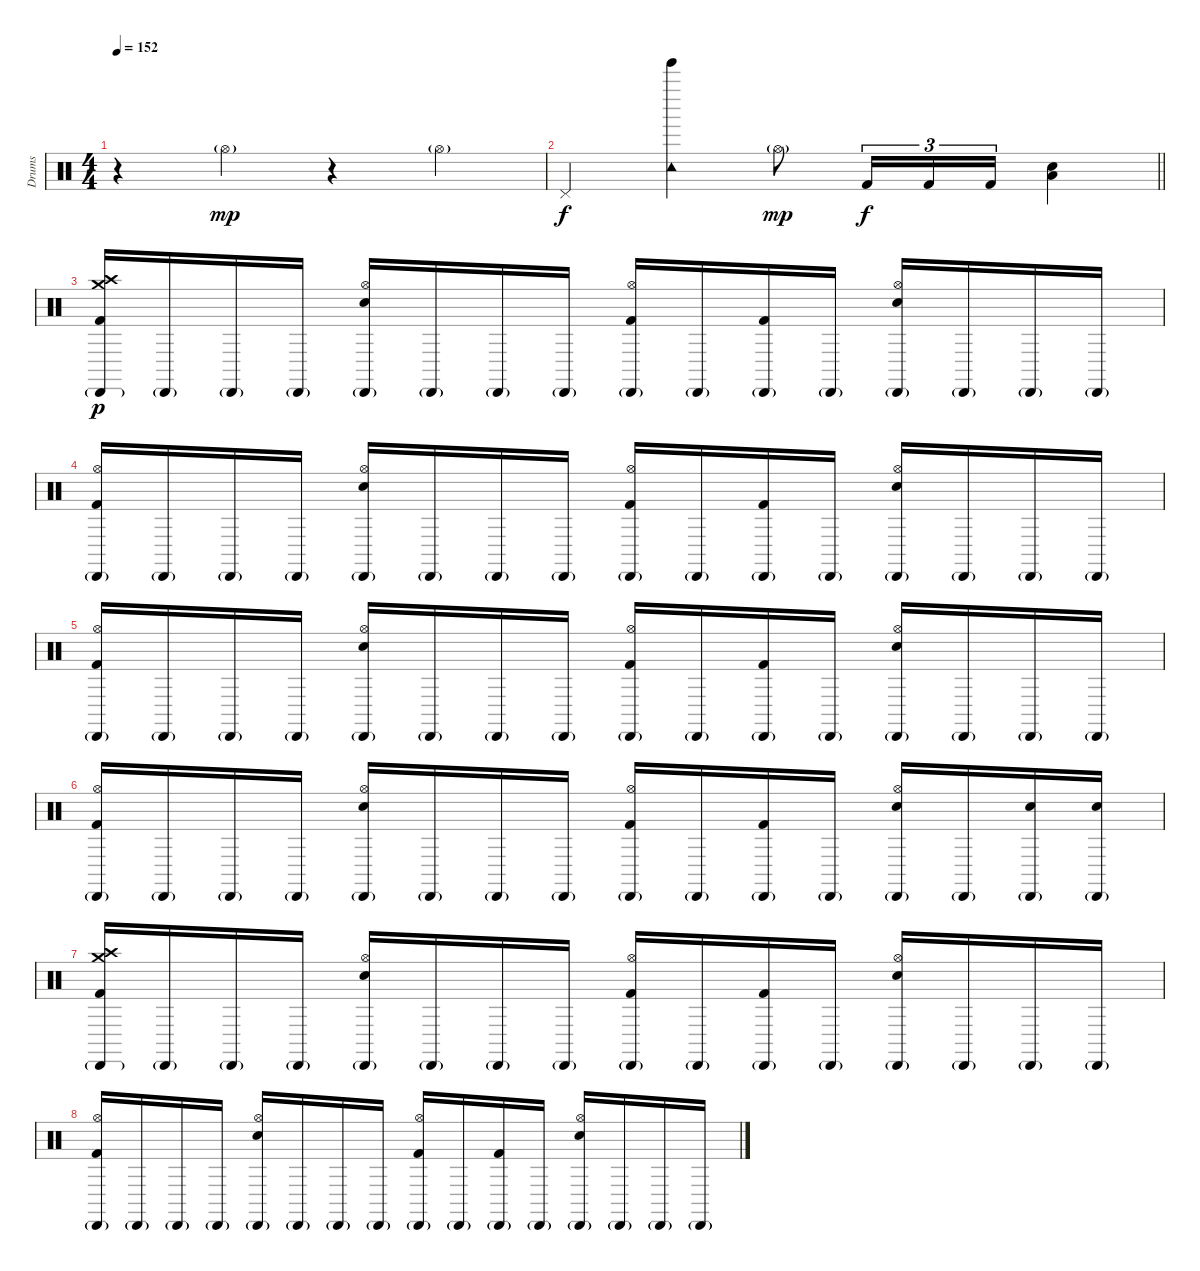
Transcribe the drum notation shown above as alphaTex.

\track ("Drums" "Drums") {instrument percussion}
\staff {score}
\articulation defaults
\ts (4 4)
\tempo 152
\clef neutral
\ks c
r.4{dy mp} "Hi-Hat (open)"{g}.4 r.4 "Hi-Hat (open)"{g}.4 |
\barLineRight lightlight "Pedal Hi-Hat (hit)".4{dy f}
("Tambourine (hit)" "Tinkle Bell (hit)").4 "Hi-Hat (open)"{g}.8{dy mp} "Kick (hit) 2".16{tu (3 2) dy f} "Kick (hit) 2".16{tu (3 2)} "Kick (hit) 2".16{tu (3 2)} ("Low Tom (hit)" "Electric Snare (hit)").4 |
("Crash high (hit)" "Crash medium (hit)" "Cabasa (hit)"{g} "Kick (hit) 2").16{dy p} "Cabasa (hit)"{g}.16 "Cabasa (hit)"{g}.16 "Cabasa (hit)"{g}.16 ("Hi-Hat (open)" "Cabasa (hit)"{g} "Electric Snare (hit)").16 "Cabasa (hit)"{g}.16 "Cabasa (hit)"{g}.16 "Cabasa (hit)"{g}.16 ("Hi-Hat (open)" "Cabasa (hit)"{g} "Kick (hit) 2").16 "Cabasa (hit)"{g}.16 ("Cabasa (hit)"{g} "Kick (hit) 2").16 "Cabasa (hit)"{g}.16 ("Hi-Hat (open)" "Cabasa (hit)"{g} "Electric Snare (hit)").16 "Cabasa (hit)"{g}.16 "Cabasa (hit)"{g}.16 "Cabasa (hit)"{g}.16 |
("Hi-Hat (open)" "Cabasa (hit)"{g} "Kick (hit) 2").16 "Cabasa (hit)"{g}.16 "Cabasa (hit)"{g}.16 "Cabasa (hit)"{g}.16 ("Hi-Hat (open)" "Cabasa (hit)"{g} "Electric Snare (hit)").16 "Cabasa (hit)"{g}.16 "Cabasa (hit)"{g}.16 "Cabasa (hit)"{g}.16 ("Hi-Hat (open)" "Cabasa (hit)"{g} "Kick (hit) 2").16 "Cabasa (hit)"{g}.16 ("Cabasa (hit)"{g} "Kick (hit) 2").16 "Cabasa (hit)"{g}.16 ("Hi-Hat (open)" "Cabasa (hit)"{g} "Electric Snare (hit)").16 "Cabasa (hit)"{g}.16 "Cabasa (hit)"{g}.16 "Cabasa (hit)"{g}.16 |
("Hi-Hat (open)" "Cabasa (hit)"{g} "Kick (hit) 2").16 "Cabasa (hit)"{g}.16 "Cabasa (hit)"{g}.16 "Cabasa (hit)"{g}.16 ("Hi-Hat (open)" "Cabasa (hit)"{g} "Electric Snare (hit)").16 "Cabasa (hit)"{g}.16 "Cabasa (hit)"{g}.16 "Cabasa (hit)"{g}.16 ("Hi-Hat (open)" "Cabasa (hit)"{g} "Kick (hit) 2").16 "Cabasa (hit)"{g}.16 ("Cabasa (hit)"{g} "Kick (hit) 2").16 "Cabasa (hit)"{g}.16 ("Hi-Hat (open)" "Cabasa (hit)"{g} "Electric Snare (hit)").16 "Cabasa (hit)"{g}.16 "Cabasa (hit)"{g}.16 "Cabasa (hit)"{g}.16 |
("Hi-Hat (open)" "Cabasa (hit)"{g} "Kick (hit) 2").16 "Cabasa (hit)"{g}.16 "Cabasa (hit)"{g}.16 "Cabasa (hit)"{g}.16 ("Hi-Hat (open)" "Cabasa (hit)"{g} "Electric Snare (hit)").16 "Cabasa (hit)"{g}.16 "Cabasa (hit)"{g}.16 "Cabasa (hit)"{g}.16 ("Hi-Hat (open)" "Cabasa (hit)"{g} "Kick (hit) 2").16 "Cabasa (hit)"{g}.16 ("Cabasa (hit)"{g} "Kick (hit) 2").16 "Cabasa (hit)"{g}.16 ("Hi-Hat (open)" "Cabasa (hit)"{g} "Electric Snare (hit)").16 "Cabasa (hit)"{g}.16 ("Cabasa (hit)"{g} "Electric Snare (hit)").16 ("Cabasa (hit)"{g} "Electric Snare (hit)").16 |
("Crash high (hit)" "Crash medium (hit)" "Cabasa (hit)"{g} "Kick (hit) 2").16 "Cabasa (hit)"{g}.16 "Cabasa (hit)"{g}.16 "Cabasa (hit)"{g}.16 ("Hi-Hat (open)" "Cabasa (hit)"{g} "Electric Snare (hit)").16 "Cabasa (hit)"{g}.16 "Cabasa (hit)"{g}.16 "Cabasa (hit)"{g}.16 ("Hi-Hat (open)" "Cabasa (hit)"{g} "Kick (hit) 2").16 "Cabasa (hit)"{g}.16 ("Cabasa (hit)"{g} "Kick (hit) 2").16 "Cabasa (hit)"{g}.16 ("Hi-Hat (open)" "Cabasa (hit)"{g} "Electric Snare (hit)").16 "Cabasa (hit)"{g}.16 "Cabasa (hit)"{g}.16 "Cabasa (hit)"{g}.16 |
("Hi-Hat (open)" "Cabasa (hit)"{g} "Kick (hit) 2").16 "Cabasa (hit)"{g}.16 "Cabasa (hit)"{g}.16 "Cabasa (hit)"{g}.16 ("Hi-Hat (open)" "Cabasa (hit)"{g} "Electric Snare (hit)").16 "Cabasa (hit)"{g}.16 "Cabasa (hit)"{g}.16 "Cabasa (hit)"{g}.16 ("Hi-Hat (open)" "Cabasa (hit)"{g} "Kick (hit) 2").16 "Cabasa (hit)"{g}.16 ("Cabasa (hit)"{g} "Kick (hit) 2").16 "Cabasa (hit)"{g}.16 ("Hi-Hat (open)" "Cabasa (hit)"{g} "Electric Snare (hit)").16 "Cabasa (hit)"{g}.16 "Cabasa (hit)"{g}.16 "Cabasa (hit)"{g}.16
